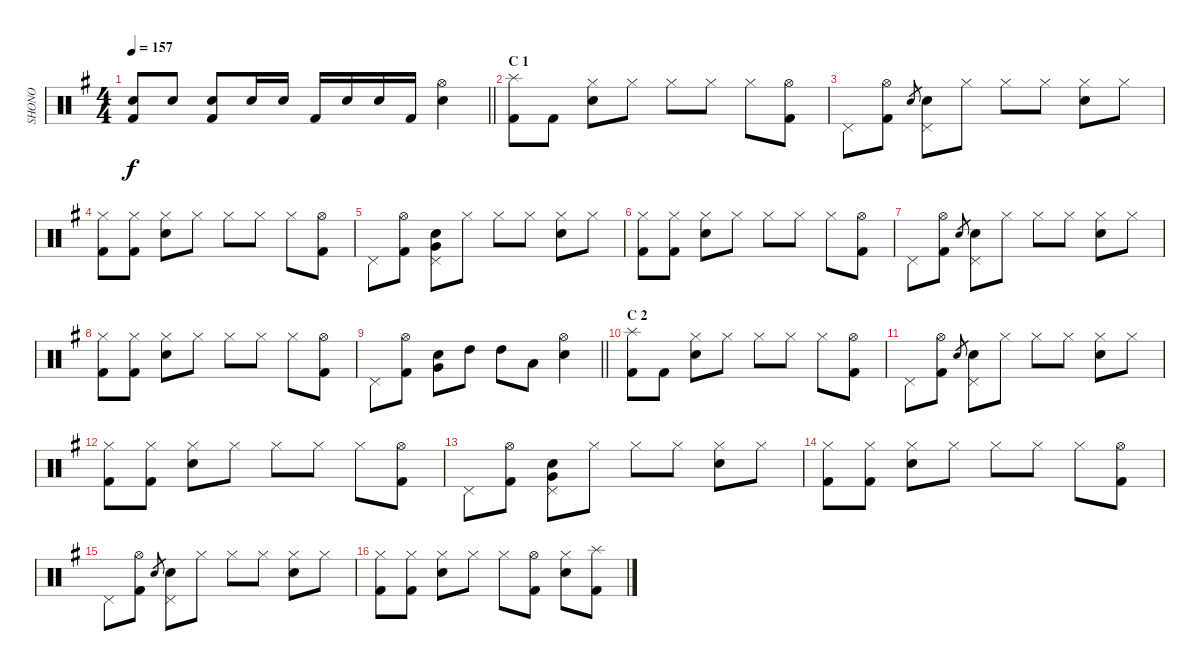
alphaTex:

\track ("SHONO" "SHONO") {instrument percussion}
\staff {score}
\articulation defaults
\ts (4 4)
\tempo 157
\clef neutral
\barLineRight lightlight
\ks g
("Snare (hit) 2" "Kick (hit) 2").8{dy f} "Snare (hit) 2".8 ("Snare (hit) 2" "Kick (hit) 2").8 "Snare (hit) 2".16 "Snare (hit) 2".16 "Kick (hit) 2".16 "Snare (hit) 2".16 "Snare (hit) 2".16 "Kick (hit) 2".16 ("Hi-Hat (open)" "Snare (hit) 2").4 |
\section ("" "C 1")
("Splash (hit)" "Kick (hit) 2").8 "Kick (hit) 2".8 ("Hi-Hat (closed)" "Snare (hit) 2").8 "Hi-Hat (closed)".8 "Hi-Hat (closed)".8 "Hi-Hat (closed)".8 "Hi-Hat (closed)".8 ("Hi-Hat (open)" "Kick (hit) 2").8 |
"Pedal Hi-Hat (hit)".8 ("Hi-Hat (open)" "Kick (hit) 2").8 "Snare (hit) 2".8{gr} ("Pedal Hi-Hat (hit)" "Snare (hit) 2").8 "Hi-Hat (closed)".8 "Hi-Hat (closed)".8 "Hi-Hat (closed)".8 ("Hi-Hat (closed)" "Snare (hit) 2").8 "Hi-Hat (closed)".8 |
("Hi-Hat (closed)" "Kick (hit) 2").8 ("Hi-Hat (closed)" "Kick (hit) 2").8 ("Hi-Hat (closed)" "Snare (hit) 2").8 "Hi-Hat (closed)".8 "Hi-Hat (closed)".8 "Hi-Hat (closed)".8 "Hi-Hat (closed)".8 ("Hi-Hat (open)" "Kick (hit) 2").8 |
"Pedal Hi-Hat (hit)".8 ("Hi-Hat (open)" "Kick (hit) 2").8 ("Pedal Hi-Hat (hit)" "Snare (hit) 2" "Very Low Tom (hit)").8 "Hi-Hat (closed)".8 "Hi-Hat (closed)".8 "Hi-Hat (closed)".8 ("Hi-Hat (closed)" "Snare (hit) 2").8 "Hi-Hat (closed)".8 |
("Hi-Hat (closed)" "Kick (hit) 2").8 ("Hi-Hat (closed)" "Kick (hit) 2").8 ("Hi-Hat (closed)" "Snare (hit) 2").8 "Hi-Hat (closed)".8 "Hi-Hat (closed)".8 "Hi-Hat (closed)".8 "Hi-Hat (closed)".8 ("Hi-Hat (open)" "Kick (hit) 2").8 |
"Pedal Hi-Hat (hit)".8 ("Hi-Hat (open)" "Kick (hit) 2").8 "Snare (hit) 2".8{gr} ("Pedal Hi-Hat (hit)" "Snare (hit) 2").8 "Hi-Hat (closed)".8 "Hi-Hat (closed)".8 "Hi-Hat (closed)".8 ("Hi-Hat (closed)" "Snare (hit) 2").8 "Hi-Hat (closed)".8 |
("Hi-Hat (closed)" "Kick (hit) 2").8 ("Hi-Hat (closed)" "Kick (hit) 2").8 ("Hi-Hat (closed)" "Snare (hit) 2").8 "Hi-Hat (closed)".8 "Hi-Hat (closed)".8 "Hi-Hat (closed)".8 "Hi-Hat (closed)".8 ("Hi-Hat (open)" "Kick (hit) 2").8 |
\barLineRight lightlight "Pedal Hi-Hat (hit)".8
("Hi-Hat (open)" "Kick (hit) 2").8 ("Snare (hit) 2" "Very Low Tom (hit)").8 "High Tom (hit)".8 "High Tom (hit)".8 "Low Tom (hit)".8 ("Hi-Hat (open)" "Snare (hit) 2").4 |
\section ("" "C 2")
("Splash (hit)" "Kick (hit) 2").8 "Kick (hit) 2".8 ("Hi-Hat (closed)" "Snare (hit) 2").8 "Hi-Hat (closed)".8 "Hi-Hat (closed)".8 "Hi-Hat (closed)".8 "Hi-Hat (closed)".8 ("Hi-Hat (open)" "Kick (hit) 2").8 |
"Pedal Hi-Hat (hit)".8 ("Hi-Hat (open)" "Kick (hit) 2").8 "Snare (hit) 2".8{gr} ("Pedal Hi-Hat (hit)" "Snare (hit) 2").8 "Hi-Hat (closed)".8 "Hi-Hat (closed)".8 "Hi-Hat (closed)".8 ("Hi-Hat (closed)" "Snare (hit) 2").8 "Hi-Hat (closed)".8 |
("Hi-Hat (closed)" "Kick (hit) 2").8 ("Hi-Hat (closed)" "Kick (hit) 2").8 ("Hi-Hat (closed)" "Snare (hit) 2").8 "Hi-Hat (closed)".8 "Hi-Hat (closed)".8 "Hi-Hat (closed)".8 "Hi-Hat (closed)".8 ("Hi-Hat (open)" "Kick (hit) 2").8 |
"Pedal Hi-Hat (hit)".8 ("Hi-Hat (open)" "Kick (hit) 2").8 ("Pedal Hi-Hat (hit)" "Snare (hit) 2" "Very Low Tom (hit)").8 "Hi-Hat (closed)".8 "Hi-Hat (closed)".8 "Hi-Hat (closed)".8 ("Hi-Hat (closed)" "Snare (hit) 2").8 "Hi-Hat (closed)".8 |
("Hi-Hat (closed)" "Kick (hit) 2").8 ("Hi-Hat (closed)" "Kick (hit) 2").8 ("Hi-Hat (closed)" "Snare (hit) 2").8 "Hi-Hat (closed)".8 "Hi-Hat (closed)".8 "Hi-Hat (closed)".8 "Hi-Hat (closed)".8 ("Hi-Hat (open)" "Kick (hit) 2").8 |
"Pedal Hi-Hat (hit)".8 ("Hi-Hat (open)" "Kick (hit) 2").8 "Snare (hit) 2".8{gr} ("Pedal Hi-Hat (hit)" "Snare (hit) 2").8 "Hi-Hat (closed)".8 "Hi-Hat (closed)".8 "Hi-Hat (closed)".8 ("Hi-Hat (closed)" "Snare (hit) 2").8 "Hi-Hat (closed)".8 |
("Hi-Hat (closed)" "Kick (hit) 2").8 ("Hi-Hat (closed)" "Kick (hit) 2").8 ("Hi-Hat (closed)" "Snare (hit) 2").8 "Hi-Hat (closed)".8 "Hi-Hat (closed)".8 ("Hi-Hat (open)" "Kick (hit) 2").8 ("Hi-Hat (closed)" "Snare (hit) 2").8 ("Splash (hit)" "Kick (hit) 2").8
